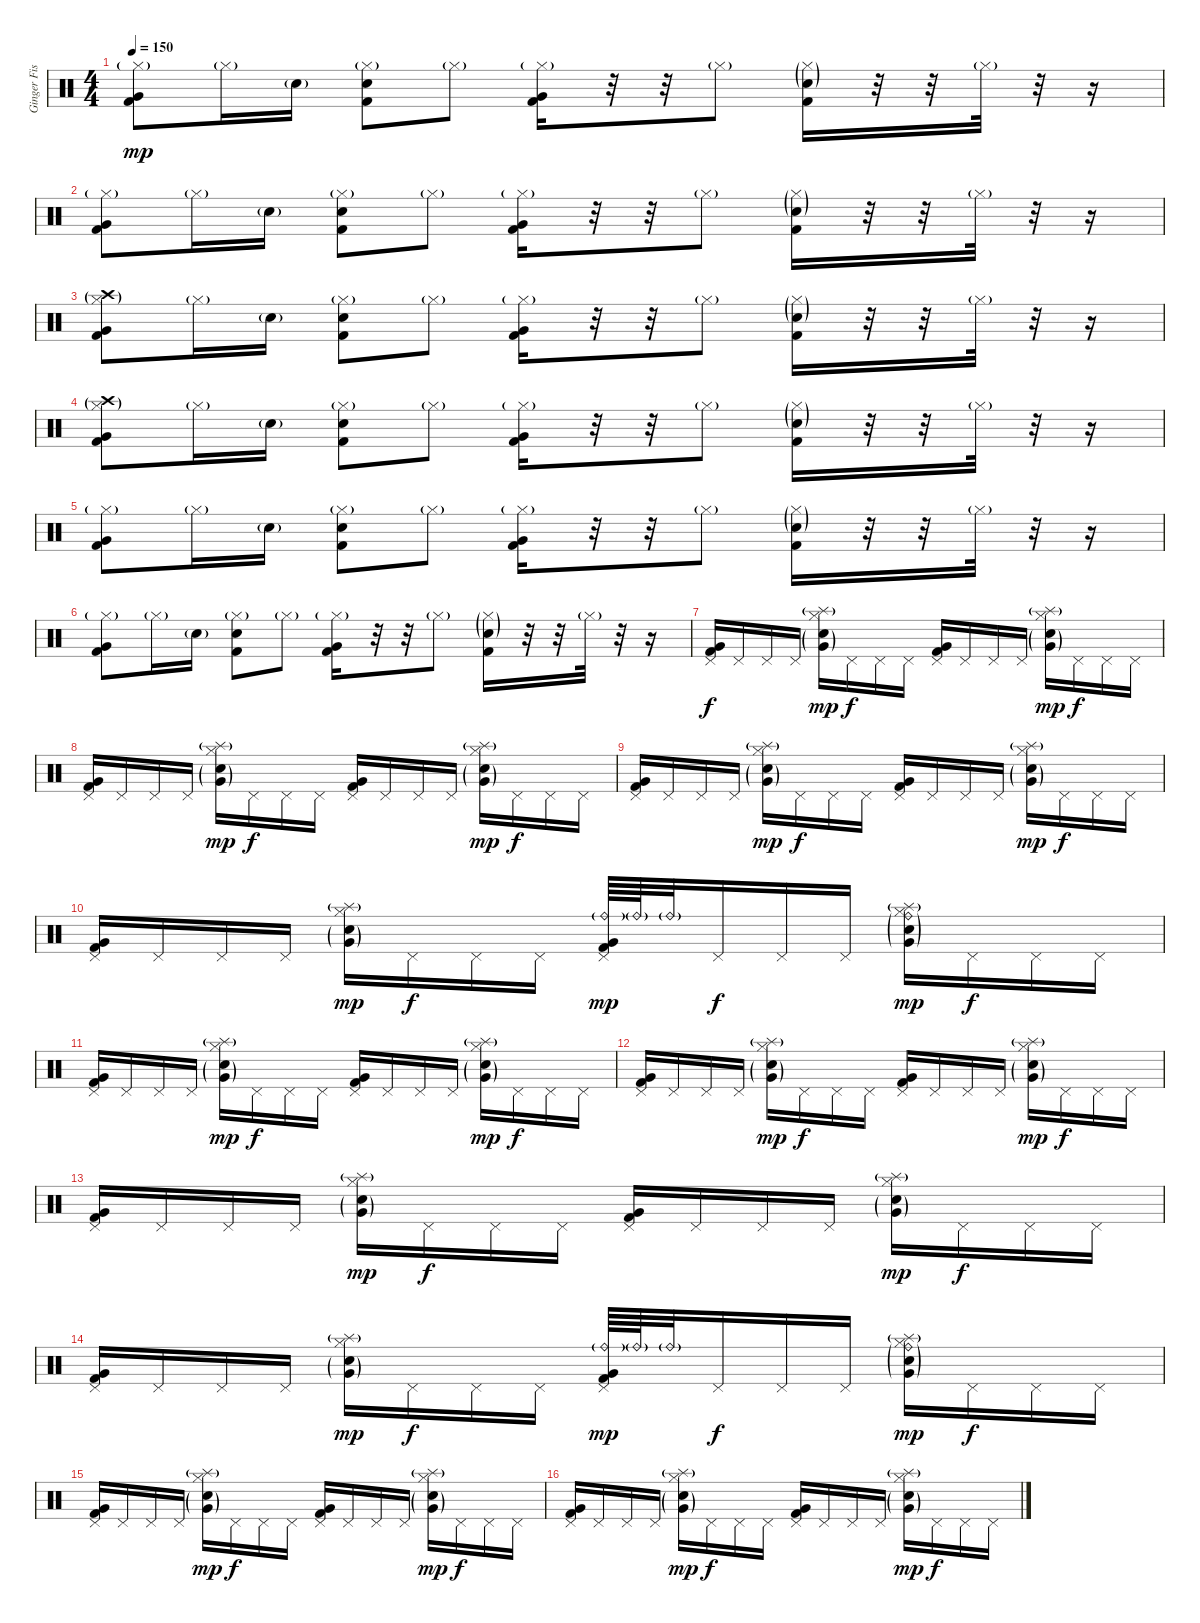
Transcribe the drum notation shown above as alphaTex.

\track ("Ginger Fish" "Ginger Fis") {instrument percussion}
\staff {score}
\articulation defaults
\ts (4 4)
\tempo 150
\clef neutral
\ks c
("Hi-Hat (closed)"{g} "Very Low Tom (hit)" "Kick (hit) 2").8{dy mp} "Hi-Hat (closed)"{g}.16 "Electric Snare (hit)"{g}.16 ("Hi-Hat (closed)"{g} "Electric Snare (hit)" "Kick (hit) 2").8 "Hi-Hat (closed)"{g}.8 ("Hi-Hat (closed)"{g} "Very Low Tom (hit)" "Kick (hit) 2").16 r.32 r.32 "Hi-Hat (closed)"{g}.8 ("Hi-Hat (closed)"{g} "Electric Snare (hit)"{g} "Kick (hit) 2").16 r.32 r.32 "Hi-Hat (closed)"{g}.32 r.32 r.16 |
("Hi-Hat (closed)"{g} "Very Low Tom (hit)" "Kick (hit) 2").8 "Hi-Hat (closed)"{g}.16 "Electric Snare (hit)"{g}.16 ("Hi-Hat (closed)"{g} "Electric Snare (hit)" "Kick (hit) 2").8 "Hi-Hat (closed)"{g}.8 ("Hi-Hat (closed)"{g} "Very Low Tom (hit)" "Kick (hit) 2").16 r.32 r.32 "Hi-Hat (closed)"{g}.8 ("Hi-Hat (closed)"{g} "Electric Snare (hit)"{g} "Kick (hit) 2").16 r.32 r.32 "Hi-Hat (closed)"{g}.32 r.32 r.16 |
("Hi-Hat (closed)"{g} "Crash high (hit)"{g} "Very Low Tom (hit)" "Kick (hit) 2").8 "Hi-Hat (closed)"{g}.16 "Electric Snare (hit)"{g}.16 ("Hi-Hat (closed)"{g} "Electric Snare (hit)" "Kick (hit) 2").8 "Hi-Hat (closed)"{g}.8 ("Hi-Hat (closed)"{g} "Very Low Tom (hit)" "Kick (hit) 2").16 r.32 r.32 "Hi-Hat (closed)"{g}.8 ("Hi-Hat (closed)"{g} "Electric Snare (hit)"{g} "Kick (hit) 2").16 r.32 r.32 "Hi-Hat (closed)"{g}.32 r.32 r.16 |
("Hi-Hat (closed)"{g} "Crash high (hit)"{g} "Very Low Tom (hit)" "Kick (hit) 2").8 "Hi-Hat (closed)"{g}.16 "Electric Snare (hit)"{g}.16 ("Hi-Hat (closed)"{g} "Electric Snare (hit)" "Kick (hit) 2").8 "Hi-Hat (closed)"{g}.8 ("Hi-Hat (closed)"{g} "Very Low Tom (hit)" "Kick (hit) 2").16 r.32 r.32 "Hi-Hat (closed)"{g}.8 ("Hi-Hat (closed)"{g} "Electric Snare (hit)"{g} "Kick (hit) 2").16 r.32 r.32 "Hi-Hat (closed)"{g}.32 r.32 r.16 |
("Hi-Hat (closed)"{g} "Very Low Tom (hit)" "Kick (hit) 2").8 "Hi-Hat (closed)"{g}.16 "Electric Snare (hit)"{g}.16 ("Hi-Hat (closed)"{g} "Electric Snare (hit)" "Kick (hit) 2").8 "Hi-Hat (closed)"{g}.8 ("Hi-Hat (closed)"{g} "Very Low Tom (hit)" "Kick (hit) 2").16 r.32 r.32 "Hi-Hat (closed)"{g}.8 ("Hi-Hat (closed)"{g} "Electric Snare (hit)"{g} "Kick (hit) 2").16 r.32 r.32 "Hi-Hat (closed)"{g}.32 r.32 r.16 |
("Hi-Hat (closed)"{g} "Very Low Tom (hit)" "Kick (hit) 2").8 "Hi-Hat (closed)"{g}.16 "Electric Snare (hit)"{g}.16 ("Hi-Hat (closed)"{g} "Electric Snare (hit)" "Kick (hit) 2").8 "Hi-Hat (closed)"{g}.8 ("Hi-Hat (closed)"{g} "Very Low Tom (hit)" "Kick (hit) 2").16 r.32 r.32 "Hi-Hat (closed)"{g}.8 ("Hi-Hat (closed)"{g} "Electric Snare (hit)"{g} "Kick (hit) 2").16 r.32 r.32 "Hi-Hat (closed)"{g}.32 r.32 r.16 |
("Pedal Hi-Hat (hit)" "Very Low Tom (hit)" "Kick (hit) 2").16{dy f} "Pedal Hi-Hat (hit)".16 "Pedal Hi-Hat (hit)".16 "Pedal Hi-Hat (hit)".16 ("Hi-Hat (closed)" "Splash (hit)"{g} "Electric Snare (hit)"{g} "Very Low Tom (hit)"{g}).16{dy mp} "Pedal Hi-Hat (hit)".16{dy f} "Pedal Hi-Hat (hit)".16 "Pedal Hi-Hat (hit)".16 ("Pedal Hi-Hat (hit)" "Very Low Tom (hit)" "Kick (hit) 2").16 "Pedal Hi-Hat (hit)".16 "Pedal Hi-Hat (hit)".16 "Pedal Hi-Hat (hit)".16 ("Hi-Hat (closed)" "Splash (hit)"{g} "Electric Snare (hit)"{g} "Very Low Tom (hit)"{g}).16{dy mp} "Pedal Hi-Hat (hit)".16{dy f} "Pedal Hi-Hat (hit)".16 "Pedal Hi-Hat (hit)".16 |
("Pedal Hi-Hat (hit)" "Very Low Tom (hit)" "Kick (hit) 2").16 "Pedal Hi-Hat (hit)".16 "Pedal Hi-Hat (hit)".16 "Pedal Hi-Hat (hit)".16 ("Hi-Hat (closed)" "Splash (hit)"{g} "Electric Snare (hit)"{g} "Very Low Tom (hit)"{g}).16{dy mp} "Pedal Hi-Hat (hit)".16{dy f} "Pedal Hi-Hat (hit)".16 "Pedal Hi-Hat (hit)".16 ("Pedal Hi-Hat (hit)" "Very Low Tom (hit)" "Kick (hit) 2").16 "Pedal Hi-Hat (hit)".16 "Pedal Hi-Hat (hit)".16 "Pedal Hi-Hat (hit)".16 ("Hi-Hat (closed)" "Splash (hit)"{g} "Electric Snare (hit)"{g} "Very Low Tom (hit)"{g}).16{dy mp} "Pedal Hi-Hat (hit)".16{dy f} "Pedal Hi-Hat (hit)".16 "Pedal Hi-Hat (hit)".16 |
("Pedal Hi-Hat (hit)" "Very Low Tom (hit)" "Kick (hit) 2").16 "Pedal Hi-Hat (hit)".16 "Pedal Hi-Hat (hit)".16 "Pedal Hi-Hat (hit)".16 ("Hi-Hat (closed)" "Splash (hit)"{g} "Electric Snare (hit)"{g} "Very Low Tom (hit)"{g}).16{dy mp} "Pedal Hi-Hat (hit)".16{dy f} "Pedal Hi-Hat (hit)".16 "Pedal Hi-Hat (hit)".16 ("Pedal Hi-Hat (hit)" "Very Low Tom (hit)" "Kick (hit) 2").16 "Pedal Hi-Hat (hit)".16 "Pedal Hi-Hat (hit)".16 "Pedal Hi-Hat (hit)".16 ("Hi-Hat (closed)" "Splash (hit)"{g} "Electric Snare (hit)"{g} "Very Low Tom (hit)"{g}).16{dy mp} "Pedal Hi-Hat (hit)".16{dy f} "Pedal Hi-Hat (hit)".16 "Pedal Hi-Hat (hit)".16 |
("Pedal Hi-Hat (hit)" "Very Low Tom (hit)" "Kick (hit) 2").16 "Pedal Hi-Hat (hit)".16 "Pedal Hi-Hat (hit)".16 "Pedal Hi-Hat (hit)".16 ("Hi-Hat (closed)" "Splash (hit)"{g} "Electric Snare (hit)"{g} "Very Low Tom (hit)"{g}).16{dy mp} "Pedal Hi-Hat (hit)".16{dy f} "Pedal Hi-Hat (hit)".16 "Pedal Hi-Hat (hit)".16 ("Pedal Hi-Hat (hit)" "Ride (bell)"{g} "Very Low Tom (hit)" "Kick (hit) 2").64{dy mp} "Ride (bell)"{g}.64 "Ride (bell)"{g}.32 "Pedal Hi-Hat (hit)".16{dy f} "Pedal Hi-Hat (hit)".16 "Pedal Hi-Hat (hit)".16 ("Hi-Hat (closed)" "Splash (hit)"{g} "Ride (bell)"{g} "Electric Snare (hit)"{g} "Very Low Tom (hit)"{g}).16{dy mp} "Pedal Hi-Hat (hit)".16{dy f} "Pedal Hi-Hat (hit)".16 "Pedal Hi-Hat (hit)".16 |
("Pedal Hi-Hat (hit)" "Very Low Tom (hit)" "Kick (hit) 2").16 "Pedal Hi-Hat (hit)".16 "Pedal Hi-Hat (hit)".16 "Pedal Hi-Hat (hit)".16 ("Hi-Hat (closed)" "Splash (hit)"{g} "Electric Snare (hit)"{g} "Very Low Tom (hit)"{g}).16{dy mp} "Pedal Hi-Hat (hit)".16{dy f} "Pedal Hi-Hat (hit)".16 "Pedal Hi-Hat (hit)".16 ("Pedal Hi-Hat (hit)" "Very Low Tom (hit)" "Kick (hit) 2").16 "Pedal Hi-Hat (hit)".16 "Pedal Hi-Hat (hit)".16 "Pedal Hi-Hat (hit)".16 ("Hi-Hat (closed)" "Splash (hit)"{g} "Electric Snare (hit)"{g} "Very Low Tom (hit)"{g}).16{dy mp} "Pedal Hi-Hat (hit)".16{dy f} "Pedal Hi-Hat (hit)".16 "Pedal Hi-Hat (hit)".16 |
("Pedal Hi-Hat (hit)" "Very Low Tom (hit)" "Kick (hit) 2").16 "Pedal Hi-Hat (hit)".16 "Pedal Hi-Hat (hit)".16 "Pedal Hi-Hat (hit)".16 ("Hi-Hat (closed)" "Splash (hit)"{g} "Electric Snare (hit)"{g} "Very Low Tom (hit)"{g}).16{dy mp} "Pedal Hi-Hat (hit)".16{dy f} "Pedal Hi-Hat (hit)".16 "Pedal Hi-Hat (hit)".16 ("Pedal Hi-Hat (hit)" "Very Low Tom (hit)" "Kick (hit) 2").16 "Pedal Hi-Hat (hit)".16 "Pedal Hi-Hat (hit)".16 "Pedal Hi-Hat (hit)".16 ("Hi-Hat (closed)" "Splash (hit)"{g} "Electric Snare (hit)"{g} "Very Low Tom (hit)"{g}).16{dy mp} "Pedal Hi-Hat (hit)".16{dy f} "Pedal Hi-Hat (hit)".16 "Pedal Hi-Hat (hit)".16 |
("Pedal Hi-Hat (hit)" "Very Low Tom (hit)" "Kick (hit) 2").16 "Pedal Hi-Hat (hit)".16 "Pedal Hi-Hat (hit)".16 "Pedal Hi-Hat (hit)".16 ("Hi-Hat (closed)" "Splash (hit)"{g} "Electric Snare (hit)"{g} "Very Low Tom (hit)"{g}).16{dy mp} "Pedal Hi-Hat (hit)".16{dy f} "Pedal Hi-Hat (hit)".16 "Pedal Hi-Hat (hit)".16 ("Pedal Hi-Hat (hit)" "Very Low Tom (hit)" "Kick (hit) 2").16 "Pedal Hi-Hat (hit)".16 "Pedal Hi-Hat (hit)".16 "Pedal Hi-Hat (hit)".16 ("Hi-Hat (closed)" "Splash (hit)"{g} "Electric Snare (hit)"{g} "Very Low Tom (hit)"{g}).16{dy mp} "Pedal Hi-Hat (hit)".16{dy f} "Pedal Hi-Hat (hit)".16 "Pedal Hi-Hat (hit)".16 |
("Pedal Hi-Hat (hit)" "Very Low Tom (hit)" "Kick (hit) 2").16 "Pedal Hi-Hat (hit)".16 "Pedal Hi-Hat (hit)".16 "Pedal Hi-Hat (hit)".16 ("Hi-Hat (closed)" "Splash (hit)"{g} "Electric Snare (hit)"{g} "Very Low Tom (hit)"{g}).16{dy mp} "Pedal Hi-Hat (hit)".16{dy f} "Pedal Hi-Hat (hit)".16 "Pedal Hi-Hat (hit)".16 ("Pedal Hi-Hat (hit)" "Ride (bell)"{g} "Very Low Tom (hit)" "Kick (hit) 2").64{dy mp} "Ride (bell)"{g}.64 "Ride (bell)"{g}.32 "Pedal Hi-Hat (hit)".16{dy f} "Pedal Hi-Hat (hit)".16 "Pedal Hi-Hat (hit)".16 ("Hi-Hat (closed)" "Splash (hit)"{g} "Ride (bell)"{g} "Electric Snare (hit)"{g} "Very Low Tom (hit)"{g}).16{dy mp} "Pedal Hi-Hat (hit)".16{dy f} "Pedal Hi-Hat (hit)".16 "Pedal Hi-Hat (hit)".16 |
("Pedal Hi-Hat (hit)" "Very Low Tom (hit)" "Kick (hit) 2").16 "Pedal Hi-Hat (hit)".16 "Pedal Hi-Hat (hit)".16 "Pedal Hi-Hat (hit)".16 ("Hi-Hat (closed)" "Splash (hit)"{g} "Electric Snare (hit)"{g} "Very Low Tom (hit)"{g}).16{dy mp} "Pedal Hi-Hat (hit)".16{dy f} "Pedal Hi-Hat (hit)".16 "Pedal Hi-Hat (hit)".16 ("Pedal Hi-Hat (hit)" "Very Low Tom (hit)" "Kick (hit) 2").16 "Pedal Hi-Hat (hit)".16 "Pedal Hi-Hat (hit)".16 "Pedal Hi-Hat (hit)".16 ("Hi-Hat (closed)" "Splash (hit)"{g} "Electric Snare (hit)"{g} "Very Low Tom (hit)"{g}).16{dy mp} "Pedal Hi-Hat (hit)".16{dy f} "Pedal Hi-Hat (hit)".16 "Pedal Hi-Hat (hit)".16 |
("Pedal Hi-Hat (hit)" "Very Low Tom (hit)" "Kick (hit) 2").16 "Pedal Hi-Hat (hit)".16 "Pedal Hi-Hat (hit)".16 "Pedal Hi-Hat (hit)".16 ("Hi-Hat (closed)" "Splash (hit)"{g} "Electric Snare (hit)"{g} "Very Low Tom (hit)"{g}).16{dy mp} "Pedal Hi-Hat (hit)".16{dy f} "Pedal Hi-Hat (hit)".16 "Pedal Hi-Hat (hit)".16 ("Pedal Hi-Hat (hit)" "Very Low Tom (hit)" "Kick (hit) 2").16 "Pedal Hi-Hat (hit)".16 "Pedal Hi-Hat (hit)".16 "Pedal Hi-Hat (hit)".16 ("Hi-Hat (closed)" "Splash (hit)"{g} "Electric Snare (hit)"{g} "Very Low Tom (hit)"{g}).16{dy mp} "Pedal Hi-Hat (hit)".16{dy f} "Pedal Hi-Hat (hit)".16 "Pedal Hi-Hat (hit)".16
